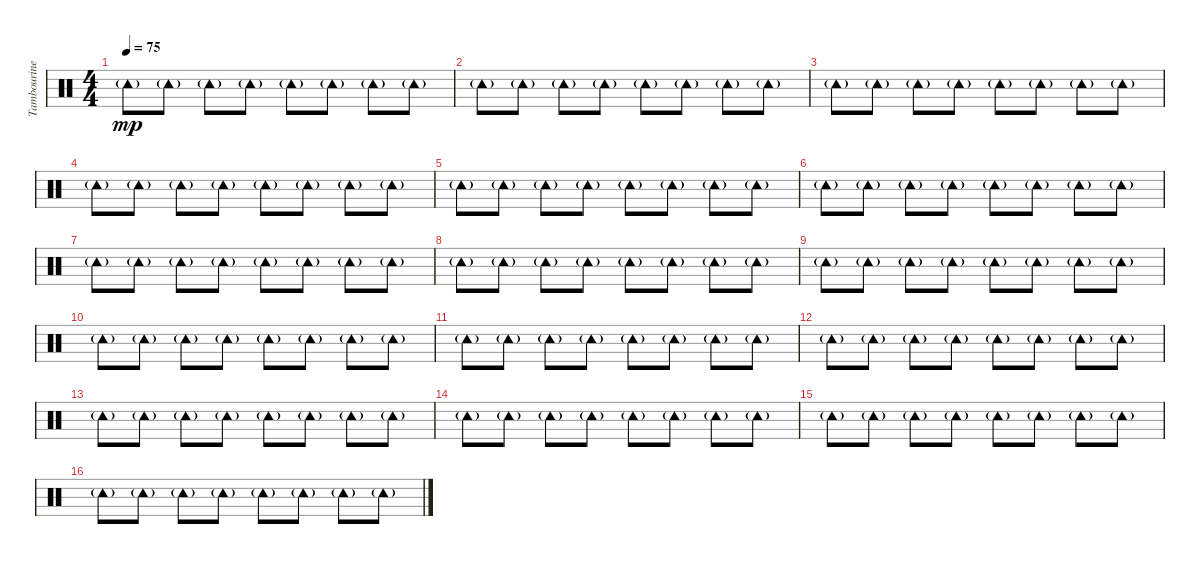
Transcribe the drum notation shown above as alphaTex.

\track ("Tambourine" "Tambourine") {instrument percussion}
\staff {score}
\articulation defaults
\ts (4 4)
\tempo 75
\clef neutral
\ks c "Tambourine (hit)"{g}.8{dy mp} "Tambourine (hit)"{g}.8 "Tambourine (hit)"{g}.8 "Tambourine (hit)"{g}.8 "Tambourine (hit)"{g}.8 "Tambourine (hit)"{g}.8 "Tambourine (hit)"{g}.8 "Tambourine (hit)"{g}.8
|
"Tambourine (hit)"{g}.8 "Tambourine (hit)"{g}.8 "Tambourine (hit)"{g}.8 "Tambourine (hit)"{g}.8 "Tambourine (hit)"{g}.8 "Tambourine (hit)"{g}.8 "Tambourine (hit)"{g}.8 "Tambourine (hit)"{g}.8 |
"Tambourine (hit)"{g}.8 "Tambourine (hit)"{g}.8 "Tambourine (hit)"{g}.8 "Tambourine (hit)"{g}.8 "Tambourine (hit)"{g}.8 "Tambourine (hit)"{g}.8 "Tambourine (hit)"{g}.8 "Tambourine (hit)"{g}.8 |
"Tambourine (hit)"{g}.8 "Tambourine (hit)"{g}.8 "Tambourine (hit)"{g}.8 "Tambourine (hit)"{g}.8 "Tambourine (hit)"{g}.8 "Tambourine (hit)"{g}.8 "Tambourine (hit)"{g}.8 "Tambourine (hit)"{g}.8 |
"Tambourine (hit)"{g}.8 "Tambourine (hit)"{g}.8 "Tambourine (hit)"{g}.8 "Tambourine (hit)"{g}.8 "Tambourine (hit)"{g}.8 "Tambourine (hit)"{g}.8 "Tambourine (hit)"{g}.8 "Tambourine (hit)"{g}.8 |
"Tambourine (hit)"{g}.8 "Tambourine (hit)"{g}.8 "Tambourine (hit)"{g}.8 "Tambourine (hit)"{g}.8 "Tambourine (hit)"{g}.8 "Tambourine (hit)"{g}.8 "Tambourine (hit)"{g}.8 "Tambourine (hit)"{g}.8 |
"Tambourine (hit)"{g}.8 "Tambourine (hit)"{g}.8 "Tambourine (hit)"{g}.8 "Tambourine (hit)"{g}.8 "Tambourine (hit)"{g}.8 "Tambourine (hit)"{g}.8 "Tambourine (hit)"{g}.8 "Tambourine (hit)"{g}.8 |
"Tambourine (hit)"{g}.8 "Tambourine (hit)"{g}.8 "Tambourine (hit)"{g}.8 "Tambourine (hit)"{g}.8 "Tambourine (hit)"{g}.8 "Tambourine (hit)"{g}.8 "Tambourine (hit)"{g}.8 "Tambourine (hit)"{g}.8 |
"Tambourine (hit)"{g}.8 "Tambourine (hit)"{g}.8 "Tambourine (hit)"{g}.8 "Tambourine (hit)"{g}.8 "Tambourine (hit)"{g}.8 "Tambourine (hit)"{g}.8 "Tambourine (hit)"{g}.8 "Tambourine (hit)"{g}.8 |
"Tambourine (hit)"{g}.8 "Tambourine (hit)"{g}.8 "Tambourine (hit)"{g}.8 "Tambourine (hit)"{g}.8 "Tambourine (hit)"{g}.8 "Tambourine (hit)"{g}.8 "Tambourine (hit)"{g}.8 "Tambourine (hit)"{g}.8 |
"Tambourine (hit)"{g}.8 "Tambourine (hit)"{g}.8 "Tambourine (hit)"{g}.8 "Tambourine (hit)"{g}.8 "Tambourine (hit)"{g}.8 "Tambourine (hit)"{g}.8 "Tambourine (hit)"{g}.8 "Tambourine (hit)"{g}.8 |
"Tambourine (hit)"{g}.8 "Tambourine (hit)"{g}.8 "Tambourine (hit)"{g}.8 "Tambourine (hit)"{g}.8 "Tambourine (hit)"{g}.8 "Tambourine (hit)"{g}.8 "Tambourine (hit)"{g}.8 "Tambourine (hit)"{g}.8 |
"Tambourine (hit)"{g}.8 "Tambourine (hit)"{g}.8 "Tambourine (hit)"{g}.8 "Tambourine (hit)"{g}.8 "Tambourine (hit)"{g}.8 "Tambourine (hit)"{g}.8 "Tambourine (hit)"{g}.8 "Tambourine (hit)"{g}.8 |
"Tambourine (hit)"{g}.8 "Tambourine (hit)"{g}.8 "Tambourine (hit)"{g}.8 "Tambourine (hit)"{g}.8 "Tambourine (hit)"{g}.8 "Tambourine (hit)"{g}.8 "Tambourine (hit)"{g}.8 "Tambourine (hit)"{g}.8 |
"Tambourine (hit)"{g}.8 "Tambourine (hit)"{g}.8 "Tambourine (hit)"{g}.8 "Tambourine (hit)"{g}.8 "Tambourine (hit)"{g}.8 "Tambourine (hit)"{g}.8 "Tambourine (hit)"{g}.8 "Tambourine (hit)"{g}.8 |
"Tambourine (hit)"{g}.8 "Tambourine (hit)"{g}.8 "Tambourine (hit)"{g}.8 "Tambourine (hit)"{g}.8 "Tambourine (hit)"{g}.8 "Tambourine (hit)"{g}.8 "Tambourine (hit)"{g}.8 "Tambourine (hit)"{g}.8
